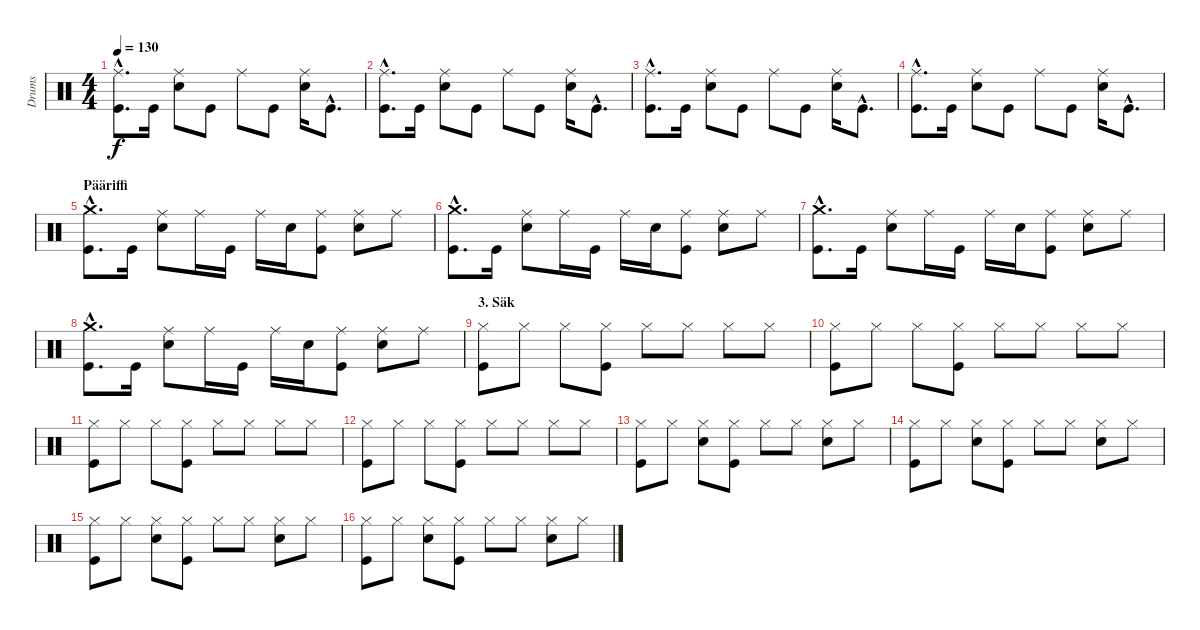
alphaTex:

\track ("Drums" "Drums") {instrument percussion}
\staff {score}
\articulation defaults
\ts (4 4)
\tempo 130
\clef neutral
\ks c
("Ride (middle)"{hac} "Kick (hit)"{hac}).8{d dy f} "Kick (hit)".16 ("Ride (middle)" "Electric Snare (hit)").8 "Kick (hit)".8 "Ride (middle)".8 "Kick (hit)".8 ("Ride (middle)" "Electric Snare (hit)").16 "Kick (hit)"{hac}.8{d} |
("Ride (middle)"{hac} "Kick (hit)"{hac}).8{d} "Kick (hit)".16 ("Ride (middle)" "Electric Snare (hit)").8 "Kick (hit)".8 "Ride (middle)".8 "Kick (hit)".8 ("Ride (middle)" "Electric Snare (hit)").16 "Kick (hit)"{hac}.8{d} |
("Ride (middle)"{hac} "Kick (hit)"{hac}).8{d} "Kick (hit)".16 ("Ride (middle)" "Electric Snare (hit)").8 "Kick (hit)".8 "Ride (middle)".8 "Kick (hit)".8 ("Ride (middle)" "Electric Snare (hit)").16 "Kick (hit)"{hac}.8{d} |
("Ride (middle)"{hac} "Kick (hit)"{hac}).8{d} "Kick (hit)".16 ("Ride (middle)" "Electric Snare (hit)").8 "Kick (hit)".8 "Ride (middle)".8 "Kick (hit)".8 ("Ride (middle)" "Electric Snare (hit)").16 "Kick (hit)"{hac}.8{d} |
\section ("" "Pääriffi")
("Crash medium (hit)"{hac} "Kick (hit)"{hac}).8{d} "Kick (hit)".16 ("Ride (middle)" "Electric Snare (hit)").8 "Ride (middle)".16 "Kick (hit)".16 "Ride (middle)".16 "Electric Snare (hit)".16 ("Ride (middle)" "Kick (hit)").8 ("Ride (middle)" "Electric Snare (hit)").8 "Ride (middle)".8 |
("Crash medium (hit)"{hac} "Kick (hit)"{hac}).8{d} "Kick (hit)".16 ("Ride (middle)" "Electric Snare (hit)").8 "Ride (middle)".16 "Kick (hit)".16 "Ride (middle)".16 "Electric Snare (hit)".16 ("Ride (middle)" "Kick (hit)").8 ("Ride (middle)" "Electric Snare (hit)").8 "Ride (middle)".8 |
("Crash medium (hit)"{hac} "Kick (hit)"{hac}).8{d} "Kick (hit)".16 ("Ride (middle)" "Electric Snare (hit)").8 "Ride (middle)".16 "Kick (hit)".16 "Ride (middle)".16 "Electric Snare (hit)".16 ("Ride (middle)" "Kick (hit)").8 ("Ride (middle)" "Electric Snare (hit)").8 "Ride (middle)".8 |
("Crash medium (hit)"{hac} "Kick (hit)"{hac}).8{d} "Kick (hit)".16 ("Ride (middle)" "Electric Snare (hit)").8 "Ride (middle)".16 "Kick (hit)".16 "Ride (middle)".16 "Electric Snare (hit)".16 ("Ride (middle)" "Kick (hit)").8 ("Ride (middle)" "Electric Snare (hit)").8 "Ride (middle)".8 |
\section ("" "3. Säk")
("Hi-Hat (closed)" "Kick (hit)").8 "Hi-Hat (closed)".8 "Hi-Hat (closed)".8 ("Hi-Hat (closed)" "Kick (hit)").8 "Hi-Hat (closed)".8 "Hi-Hat (closed)".8 "Hi-Hat (closed)".8 "Hi-Hat (closed)".8 |
("Hi-Hat (closed)" "Kick (hit)").8 "Hi-Hat (closed)".8 "Hi-Hat (closed)".8 ("Hi-Hat (closed)" "Kick (hit)").8 "Hi-Hat (closed)".8 "Hi-Hat (closed)".8 "Hi-Hat (closed)".8 "Hi-Hat (closed)".8 |
("Hi-Hat (closed)" "Kick (hit)").8 "Hi-Hat (closed)".8 "Hi-Hat (closed)".8 ("Hi-Hat (closed)" "Kick (hit)").8 "Hi-Hat (closed)".8 "Hi-Hat (closed)".8 "Hi-Hat (closed)".8 "Hi-Hat (closed)".8 |
("Hi-Hat (closed)" "Kick (hit)").8 "Hi-Hat (closed)".8 "Hi-Hat (closed)".8 ("Hi-Hat (closed)" "Kick (hit)").8 "Hi-Hat (closed)".8 "Hi-Hat (closed)".8 "Hi-Hat (closed)".8 "Hi-Hat (closed)".8 |
("Hi-Hat (closed)" "Kick (hit)").8 "Hi-Hat (closed)".8 ("Hi-Hat (closed)" "Electric Snare (hit)").8 ("Hi-Hat (closed)" "Kick (hit)").8 "Hi-Hat (closed)".8 "Hi-Hat (closed)".8 ("Hi-Hat (closed)" "Electric Snare (hit)").8 "Hi-Hat (closed)".8 |
("Hi-Hat (closed)" "Kick (hit)").8 "Hi-Hat (closed)".8 ("Hi-Hat (closed)" "Electric Snare (hit)").8 ("Hi-Hat (closed)" "Kick (hit)").8 "Hi-Hat (closed)".8 "Hi-Hat (closed)".8 ("Hi-Hat (closed)" "Electric Snare (hit)").8 "Hi-Hat (closed)".8 |
("Hi-Hat (closed)" "Kick (hit)").8 "Hi-Hat (closed)".8 ("Hi-Hat (closed)" "Electric Snare (hit)").8 ("Hi-Hat (closed)" "Kick (hit)").8 "Hi-Hat (closed)".8 "Hi-Hat (closed)".8 ("Hi-Hat (closed)" "Electric Snare (hit)").8 "Hi-Hat (closed)".8 |
("Hi-Hat (closed)" "Kick (hit)").8 "Hi-Hat (closed)".8 ("Hi-Hat (closed)" "Electric Snare (hit)").8 ("Hi-Hat (closed)" "Kick (hit)").8 "Hi-Hat (closed)".8 "Hi-Hat (closed)".8 ("Hi-Hat (closed)" "Electric Snare (hit)").8 "Hi-Hat (closed)".8
